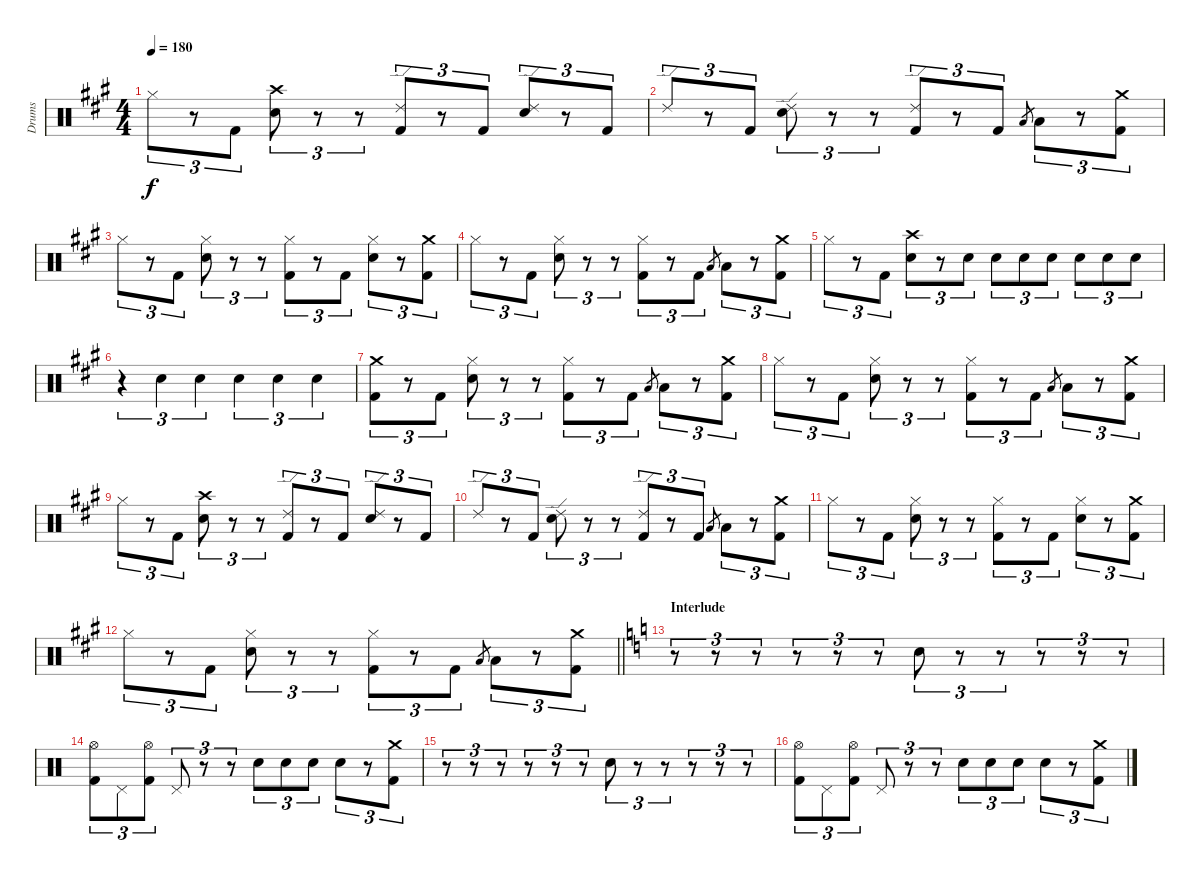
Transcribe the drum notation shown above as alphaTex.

\track ("Drums" "Drums") {instrument percussion}
\staff {score}
\articulation defaults
\ts (4 4)
\tempo 180
\clef neutral
\ks a "Hi-Hat (closed)".8{tu (3 2) dy f}
r.8{tu (3 2)} "Kick (hit) 2".8{tu (3 2)} ("Crash high (hit)" "Snare (hit) 2").8{tu (3 2)} r.8{tu (3 2)} r.8{tu (3 2)} ("Ride (edge) 2" "Kick (hit) 2").8{tu (3 2)} r.8{tu (3 2)} "Kick (hit) 2".8{tu (3 2)} ("Ride (edge) 2" "Snare (hit) 2").8{tu (3 2)} r.8{tu (3 2)} "Kick (hit) 2".8{tu (3 2)} |
"Ride (edge) 2".8{tu (3 2)} r.8{tu (3 2)} "Kick (hit) 2".8{tu (3 2)} ("Ride (edge) 2" "Snare (hit) 2").8{tu (3 2)} r.8{tu (3 2)} r.8{tu (3 2)} ("Ride (edge) 2" "Kick (hit) 2").8{tu (3 2)} r.8{tu (3 2)} "Kick (hit) 2".8{tu (3 2)} "Low Tom (hit)".8{gr} "Low Floor Tom (hit)".8{tu (3 2)} r.8{tu (3 2)} ("Crash medium (hit)" "Kick (hit) 2").8{tu (3 2)} |
"Hi-Hat (closed)".8{tu (3 2)} r.8{tu (3 2)} "Kick (hit) 2".8{tu (3 2)} ("Hi-Hat (closed)" "Snare (hit) 2").8{tu (3 2)} r.8{tu (3 2)} r.8{tu (3 2)} ("Hi-Hat (closed)" "Kick (hit) 2").8{tu (3 2)} r.8{tu (3 2)} "Kick (hit) 2".8{tu (3 2)} ("Hi-Hat (closed)" "Snare (hit) 2").8{tu (3 2)} r.8{tu (3 2)} ("Crash medium (hit)" "Kick (hit) 2").8{tu (3 2)} |
"Hi-Hat (closed)".8{tu (3 2)} r.8{tu (3 2)} "Kick (hit) 2".8{tu (3 2)} ("Hi-Hat (closed)" "Snare (hit) 2").8{tu (3 2)} r.8{tu (3 2)} r.8{tu (3 2)} ("Hi-Hat (closed)" "Kick (hit) 2").8{tu (3 2)} r.8{tu (3 2)} "Kick (hit) 2".8{tu (3 2)} "Low Tom (hit)".8{gr} "Low Floor Tom (hit)".8{tu (3 2)} r.8{tu (3 2)} ("Crash medium (hit)" "Kick (hit) 2").8{tu (3 2)} |
"Hi-Hat (closed)".8{tu (3 2)} r.8{tu (3 2)} "Kick (hit) 2".8{tu (3 2)} ("Crash high (hit)" "Snare (hit) 2").8{tu (3 2)} r.8{tu (3 2)} "Snare (hit) 2".8{tu (3 2)} "Snare (hit) 2".8{tu (3 2)} "Snare (hit) 2".8{tu (3 2)} "Snare (hit) 2".8{tu (3 2)} "Snare (hit) 2".8{tu (3 2)} "Snare (hit) 2".8{tu (3 2)} "Snare (hit) 2".8{tu (3 2)} |
r.4{tu (3 2)} "Snare (hit) 2".4{tu (3 2)} "Snare (hit) 2".4{tu (3 2)} "Snare (hit) 2".4{tu (3 2)} "Snare (hit) 2".4{tu (3 2)} "Snare (hit) 2".4{tu (3 2)} |
("Crash medium (hit)" "Kick (hit) 2").8{tu (3 2)} r.8{tu (3 2)} "Kick (hit) 2".8{tu (3 2)} ("Hi-Hat (closed)" "Snare (hit) 2").8{tu (3 2)} r.8{tu (3 2)} r.8{tu (3 2)} ("Hi-Hat (closed)" "Kick (hit) 2").8{tu (3 2)} r.8{tu (3 2)} "Kick (hit) 2".8{tu (3 2)} "Low Tom (hit)".8{gr} "Low Floor Tom (hit)".8{tu (3 2)} r.8{tu (3 2)} ("Crash medium (hit)" "Kick (hit) 2").8{tu (3 2)} |
"Hi-Hat (closed)".8{tu (3 2)} r.8{tu (3 2)} "Kick (hit) 2".8{tu (3 2)} ("Hi-Hat (closed)" "Snare (hit) 2").8{tu (3 2)} r.8{tu (3 2)} r.8{tu (3 2)} ("Hi-Hat (closed)" "Kick (hit) 2").8{tu (3 2)} r.8{tu (3 2)} "Kick (hit) 2".8{tu (3 2)} "Low Tom (hit)".8{gr} "Low Floor Tom (hit)".8{tu (3 2)} r.8{tu (3 2)} ("Crash medium (hit)" "Kick (hit) 2").8{tu (3 2)} |
"Hi-Hat (closed)".8{tu (3 2)} r.8{tu (3 2)} "Kick (hit) 2".8{tu (3 2)} ("Crash high (hit)" "Snare (hit) 2").8{tu (3 2)} r.8{tu (3 2)} r.8{tu (3 2)} ("Ride (edge) 2" "Kick (hit) 2").8{tu (3 2)} r.8{tu (3 2)} "Kick (hit) 2".8{tu (3 2)} ("Ride (edge) 2" "Snare (hit) 2").8{tu (3 2)} r.8{tu (3 2)} "Kick (hit) 2".8{tu (3 2)} |
"Ride (edge) 2".8{tu (3 2)} r.8{tu (3 2)} "Kick (hit) 2".8{tu (3 2)} ("Ride (edge) 2" "Snare (hit) 2").8{tu (3 2)} r.8{tu (3 2)} r.8{tu (3 2)} ("Ride (edge) 2" "Kick (hit) 2").8{tu (3 2)} r.8{tu (3 2)} "Kick (hit) 2".8{tu (3 2)} "Low Tom (hit)".8{gr} "Low Floor Tom (hit)".8{tu (3 2)} r.8{tu (3 2)} ("Crash medium (hit)" "Kick (hit) 2").8{tu (3 2)} |
"Hi-Hat (closed)".8{tu (3 2)} r.8{tu (3 2)} "Kick (hit) 2".8{tu (3 2)} ("Hi-Hat (closed)" "Snare (hit) 2").8{tu (3 2)} r.8{tu (3 2)} r.8{tu (3 2)} ("Hi-Hat (closed)" "Kick (hit) 2").8{tu (3 2)} r.8{tu (3 2)} "Kick (hit) 2".8{tu (3 2)} ("Hi-Hat (closed)" "Snare (hit) 2").8{tu (3 2)} r.8{tu (3 2)} ("Crash medium (hit)" "Kick (hit) 2").8{tu (3 2)} |
\barLineRight lightlight "Hi-Hat (closed)".8{tu (3 2)}
r.8{tu (3 2)} "Kick (hit) 2".8{tu (3 2)} ("Hi-Hat (closed)" "Snare (hit) 2").8{tu (3 2)} r.8{tu (3 2)} r.8{tu (3 2)} ("Hi-Hat (closed)" "Kick (hit) 2").8{tu (3 2)} r.8{tu (3 2)} "Kick (hit) 2".8{tu (3 2)} "Low Tom (hit)".8{gr} "Low Floor Tom (hit)".8{tu (3 2)} r.8{tu (3 2)} ("Crash medium (hit)" "Kick (hit) 2").8{tu (3 2)} |
\section ("" "Interlude")
\ks c
r.8{tu (3 2)} r.8{tu (3 2)} r.8{tu (3 2)} r.8{tu (3 2)} r.8{tu (3 2)} r.8{tu (3 2)} "Snare (hit) 2".8{tu (3 2)} r.8{tu (3 2)} r.8{tu (3 2)} r.8{tu (3 2)} r.8{tu (3 2)} r.8{tu (3 2)} |
("Hi-Hat (open)" "Kick (hit) 2").8{tu (3 2)} "Pedal Hi-Hat (hit)".8{tu (3 2)} ("Hi-Hat (open)" "Kick (hit) 2").8{tu (3 2)} "Pedal Hi-Hat (hit)".8{tu (3 2)} r.8{tu (3 2)} r.8{tu (3 2)} "Snare (hit) 2".8{tu (3 2)} "Snare (hit) 2".8{tu (3 2)} "Snare (hit) 2".8{tu (3 2)} "Snare (hit) 2".8{tu (3 2)} r.8{tu (3 2)} ("Crash medium (hit)" "Kick (hit) 2").8{tu (3 2)} |
r.8{tu (3 2)} r.8{tu (3 2)} r.8{tu (3 2)} r.8{tu (3 2)} r.8{tu (3 2)} r.8{tu (3 2)} "Snare (hit) 2".8{tu (3 2)} r.8{tu (3 2)} r.8{tu (3 2)} r.8{tu (3 2)} r.8{tu (3 2)} r.8{tu (3 2)} |
("Hi-Hat (open)" "Kick (hit) 2").8{tu (3 2)} "Pedal Hi-Hat (hit)".8{tu (3 2)} ("Hi-Hat (open)" "Kick (hit) 2").8{tu (3 2)} "Pedal Hi-Hat (hit)".8{tu (3 2)} r.8{tu (3 2)} r.8{tu (3 2)} "Snare (hit) 2".8{tu (3 2)} "Snare (hit) 2".8{tu (3 2)} "Snare (hit) 2".8{tu (3 2)} "Snare (hit) 2".8{tu (3 2)} r.8{tu (3 2)} ("Crash medium (hit)" "Kick (hit) 2").8{tu (3 2)}
